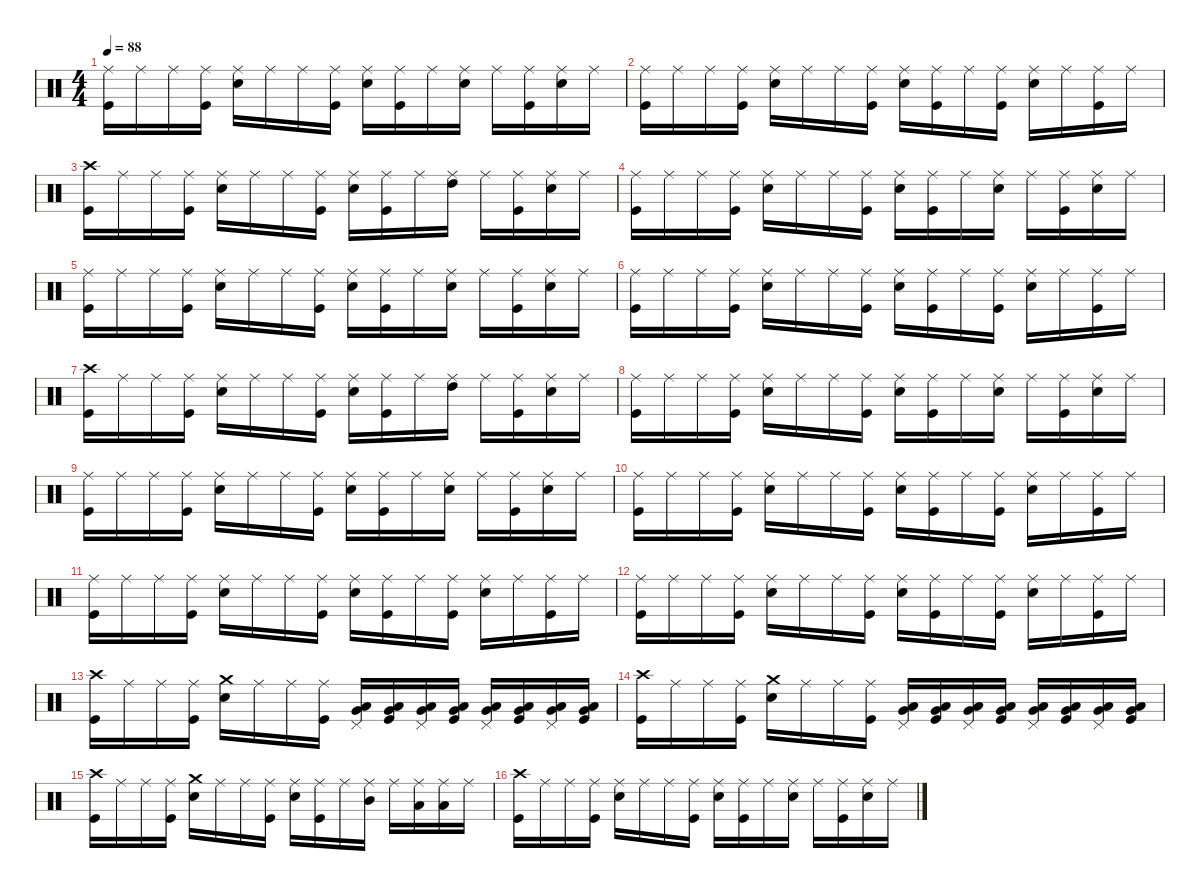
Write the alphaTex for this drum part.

\defaultSystemsLayout 4
\hideDynamics
\bracketExtendMode nobrackets
\singleTrackTrackNamePolicy hidden
\multiTrackTrackNamePolicy hidden
\firstSystemTrackNameMode fullname
\firstSystemTrackNameOrientation horizontal
\otherSystemsTrackNameOrientation horizontal
\track ("Drums" "drm.") {instrument percussion}
\staff {score}
\articulation defaults
\ts (4 4)
\tempo 88
\clef neutral
\ks c
("Ride (middle)" "Kick (hit)").16{dy f beam Down} "Ride (middle)".16{dy mp beam Down} "Ride (middle)".16{dy f beam Down} ("Ride (middle)" "Kick (hit)").16{dy mp beam Down} ("Ride (middle)" "Snare (hit) 2").16{dy f beam Down} "Ride (middle)".16{dy mp beam Down} "Ride (middle)".16{dy f beam Down} ("Ride (middle)" "Kick (hit)").16{dy mp beam Down} ("Ride (middle)" "Snare (hit) 2").16{dy f beam Down} ("Ride (middle)" "Kick (hit)").16{dy mp beam Down} "Ride (middle)".16{dy f beam Down} ("Ride (middle)" "Snare (hit) 2").16{dy mp beam Down} "Ride (middle)".16{dy f beam Down} ("Ride (middle)" "Kick (hit)").16{dy mp beam Down} ("Ride (middle)" "Snare (hit) 2").16{dy f beam Down} "Ride (middle)".16{dy mp beam Down} |
("Ride (middle)" "Kick (hit)").16{dy f beam Down} "Ride (middle)".16{dy mp beam Down} "Ride (middle)".16{dy f beam Down} ("Ride (middle)" "Kick (hit)").16{dy mp beam Down} ("Ride (middle)" "Snare (hit) 2").16{dy f beam Down} "Ride (middle)".16{dy mp beam Down} "Ride (middle)".16{dy f beam Down} ("Ride (middle)" "Kick (hit)").16{dy mp beam Down} ("Ride (middle)" "Snare (hit) 2").16{dy f beam Down} ("Ride (middle)" "Kick (hit)").16{dy mp beam Down} "Ride (middle)".16{dy f beam Down} ("Ride (middle)" "Kick (hit)").16{dy mp beam Down} ("Ride (middle)" "Snare (hit) 2").16{dy f beam Down} "Ride (middle)".16{dy mp beam Down} ("Ride (middle)" "Kick (hit)").16{dy f beam Down} "Ride (middle)".16{dy mp beam Down} |
("Crash high (hit)" "Kick (hit)").16{dy f beam Down} "Ride (middle)".16{dy mp beam Down} "Ride (middle)".16{dy f beam Down} ("Ride (middle)" "Kick (hit)").16{dy mp beam Down} ("Ride (middle)" "Snare (hit) 2").16{dy f beam Down} "Ride (middle)".16{dy mp beam Down} "Ride (middle)".16{dy f beam Down} ("Ride (middle)" "Kick (hit)").16{dy mp beam Down} ("Ride (middle)" "Snare (hit) 2").16{dy f beam Down} ("Ride (middle)" "Kick (hit)").16{dy mp beam Down} "Ride (middle)".16{dy f beam Down} ("Ride (middle)" "High Tom (hit)").16{dy mp beam Down} "Ride (middle)".16{dy f beam Down} ("Ride (middle)" "Kick (hit)").16{dy mp beam Down} ("Ride (middle)" "Snare (hit) 2").16{dy f beam Down} "Ride (middle)".16{dy mp beam Down} |
("Ride (middle)" "Kick (hit)").16{dy f beam Down} "Ride (middle)".16{dy mp beam Down} "Ride (middle)".16{dy f beam Down} ("Ride (middle)" "Kick (hit)").16{dy mp beam Down} ("Ride (middle)" "Snare (hit) 2").16{dy f beam Down} "Ride (middle)".16{dy mp beam Down} "Ride (middle)".16{dy f beam Down} ("Ride (middle)" "Kick (hit)").16{dy mp beam Down} ("Ride (middle)" "Snare (hit) 2").16{dy f beam Down} ("Ride (middle)" "Kick (hit)").16{dy mp beam Down} "Ride (middle)".16{dy f beam Down} ("Ride (middle)" "Snare (hit) 2").16{dy mp beam Down} "Ride (middle)".16{dy f beam Down} ("Ride (middle)" "Kick (hit)").16{dy mp beam Down} ("Ride (middle)" "Snare (hit) 2").16{dy f beam Down} "Ride (middle)".16{dy mp beam Down} |
("Ride (middle)" "Kick (hit)").16{dy f beam Down} "Ride (middle)".16{dy mp beam Down} "Ride (middle)".16{dy f beam Down} ("Ride (middle)" "Kick (hit)").16{dy mp beam Down} ("Ride (middle)" "Snare (hit) 2").16{dy f beam Down} "Ride (middle)".16{dy mp beam Down} "Ride (middle)".16{dy f beam Down} ("Ride (middle)" "Kick (hit)").16{dy mp beam Down} ("Ride (middle)" "Snare (hit) 2").16{dy f beam Down} ("Ride (middle)" "Kick (hit)").16{dy mp beam Down} "Ride (middle)".16{dy f beam Down} ("Ride (middle)" "Snare (hit) 2").16{dy mp beam Down} "Ride (middle)".16{dy f beam Down} ("Ride (middle)" "Kick (hit)").16{dy mp beam Down} ("Ride (middle)" "Snare (hit) 2").16{dy f beam Down} "Ride (middle)".16{dy mp beam Down} |
("Ride (middle)" "Kick (hit)").16{dy f beam Down} "Ride (middle)".16{dy mp beam Down} "Ride (middle)".16{dy f beam Down} ("Ride (middle)" "Kick (hit)").16{dy mp beam Down} ("Ride (middle)" "Snare (hit) 2").16{dy f beam Down} "Ride (middle)".16{dy mp beam Down} "Ride (middle)".16{dy f beam Down} ("Ride (middle)" "Kick (hit)").16{dy mp beam Down} ("Ride (middle)" "Snare (hit) 2").16{dy f beam Down} ("Ride (middle)" "Kick (hit)").16{dy mp beam Down} "Ride (middle)".16{dy f beam Down} ("Ride (middle)" "Kick (hit)").16{dy mp beam Down} ("Ride (middle)" "Snare (hit) 2").16{dy f beam Down} "Ride (middle)".16{dy mp beam Down} ("Ride (middle)" "Kick (hit)").16{dy f beam Down} "Ride (middle)".16{dy mp beam Down} |
("Crash high (hit)" "Kick (hit)").16{dy f beam Down} "Ride (middle)".16{dy mp beam Down} "Ride (middle)".16{dy f beam Down} ("Ride (middle)" "Kick (hit)").16{dy mp beam Down} ("Ride (middle)" "Snare (hit) 2").16{dy f beam Down} "Ride (middle)".16{dy mp beam Down} "Ride (middle)".16{dy f beam Down} ("Ride (middle)" "Kick (hit)").16{dy mp beam Down} ("Ride (middle)" "Snare (hit) 2").16{dy f beam Down} ("Ride (middle)" "Kick (hit)").16{dy mp beam Down} "Ride (middle)".16{dy f beam Down} ("Ride (middle)" "High Tom (hit)").16{dy mp beam Down} "Ride (middle)".16{dy f beam Down} ("Ride (middle)" "Kick (hit)").16{dy mp beam Down} ("Ride (middle)" "Snare (hit) 2").16{dy f beam Down} "Ride (middle)".16{dy mp beam Down} |
("Ride (middle)" "Kick (hit)").16{dy f beam Down} "Ride (middle)".16{dy mp beam Down} "Ride (middle)".16{dy f beam Down} ("Ride (middle)" "Kick (hit)").16{dy mp beam Down} ("Ride (middle)" "Snare (hit) 2").16{dy f beam Down} "Ride (middle)".16{dy mp beam Down} "Ride (middle)".16{dy f beam Down} ("Ride (middle)" "Kick (hit)").16{dy mp beam Down} ("Ride (middle)" "Snare (hit) 2").16{dy f beam Down} ("Ride (middle)" "Kick (hit)").16{dy mp beam Down} "Ride (middle)".16{dy f beam Down} ("Ride (middle)" "Snare (hit) 2").16{dy mp beam Down} "Ride (middle)".16{dy f beam Down} ("Ride (middle)" "Kick (hit)").16{dy mp beam Down} ("Ride (middle)" "Snare (hit) 2").16{dy f beam Down} "Ride (middle)".16{dy mp beam Down} |
("Ride (middle)" "Kick (hit)").16{dy f beam Down} "Ride (middle)".16{dy mp beam Down} "Ride (middle)".16{dy f beam Down} ("Ride (middle)" "Kick (hit)").16{dy mp beam Down} ("Ride (middle)" "Snare (hit) 2").16{dy f beam Down} "Ride (middle)".16{dy mp beam Down} "Ride (middle)".16{dy f beam Down} ("Ride (middle)" "Kick (hit)").16{dy mp beam Down} ("Ride (middle)" "Snare (hit) 2").16{dy f beam Down} ("Ride (middle)" "Kick (hit)").16{dy mp beam Down} "Ride (middle)".16{dy f beam Down} ("Ride (middle)" "Snare (hit) 2").16{dy mp beam Down} "Ride (middle)".16{dy f beam Down} ("Ride (middle)" "Kick (hit)").16{dy mp beam Down} ("Ride (middle)" "Snare (hit) 2").16{dy f beam Down} "Ride (middle)".16{dy mp beam Down} |
("Ride (middle)" "Kick (hit)").16{dy f beam Down} "Ride (middle)".16{dy mp beam Down} "Ride (middle)".16{dy f beam Down} ("Ride (middle)" "Kick (hit)").16{dy mp beam Down} ("Ride (middle)" "Snare (hit) 2").16{dy f beam Down} "Ride (middle)".16{dy mp beam Down} "Ride (middle)".16{dy f beam Down} ("Ride (middle)" "Kick (hit)").16{dy mp beam Down} ("Ride (middle)" "Snare (hit) 2").16{dy f beam Down} ("Ride (middle)" "Kick (hit)").16{dy mp beam Down} "Ride (middle)".16{dy f beam Down} ("Ride (middle)" "Kick (hit)").16{dy mp beam Down} ("Ride (middle)" "Snare (hit) 2").16{dy f beam Down} "Ride (middle)".16{dy mp beam Down} ("Ride (middle)" "Kick (hit)").16{dy f beam Down} "Ride (middle)".16{dy mp beam Down} |
("Ride (middle)" "Kick (hit)").16{dy f beam Down} "Ride (middle)".16{dy mp beam Down} "Ride (middle)".16{dy f beam Down} ("Ride (middle)" "Kick (hit)").16{dy mp beam Down} ("Ride (middle)" "Snare (hit) 2").16{dy f beam Down} "Ride (middle)".16{dy mp beam Down} "Ride (middle)".16{dy f beam Down} ("Ride (middle)" "Kick (hit)").16{dy mp beam Down} ("Ride (middle)" "Snare (hit) 2").16{dy f beam Down} ("Ride (middle)" "Kick (hit)").16{dy mp beam Down} "Ride (middle)".16{dy f beam Down} ("Ride (middle)" "Kick (hit)").16{dy mp beam Down} ("Ride (middle)" "Snare (hit) 2").16{dy f beam Down} "Ride (middle)".16{dy mp beam Down} ("Ride (middle)" "Kick (hit)").16{dy f beam Down} "Ride (middle)".16{dy mp beam Down} |
("Ride (middle)" "Kick (hit)").16{dy f beam Down} "Ride (middle)".16{dy mp beam Down} "Ride (middle)".16{dy f beam Down} ("Ride (middle)" "Kick (hit)").16{dy mp beam Down} ("Ride (middle)" "Snare (hit) 2").16{dy f beam Down} "Ride (middle)".16{dy mp beam Down} "Ride (middle)".16{dy f beam Down} ("Ride (middle)" "Kick (hit)").16{dy mp beam Down} ("Ride (middle)" "Snare (hit) 2").16{dy f beam Down} ("Ride (middle)" "Kick (hit)").16{dy mp beam Down} "Ride (middle)".16{dy f beam Down} ("Ride (middle)" "Kick (hit)").16{dy mp beam Down} ("Ride (middle)" "Snare (hit) 2").16{dy f beam Down} "Ride (middle)".16{dy mp beam Down} ("Ride (middle)" "Kick (hit)").16{dy f beam Down} "Ride (middle)".16{dy mp beam Down} |
("Crash high (hit)" "Kick (hit)").16{dy f beam Down} "Ride (middle)".16{dy mp beam Down} "Ride (middle)".16{dy f beam Down} ("Ride (middle)" "Kick (hit)").16{dy mp beam Down} ("Crash medium (hit)" "Snare (hit) 2").16{dy f beam Down} "Ride (middle)".16{dy mp beam Down} "Ride (middle)".16{dy f beam Down} ("Ride (middle)" "Kick (hit)").16{dy mp beam Down} ("Pedal Hi-Hat (hit)" "Very Low Tom (hit)" "Low Tom (hit)").16{dy p beam Up} ("Very Low Tom (hit)" "Low Tom (hit)" "Kick (hit)").16{dy mp beam Up} ("Pedal Hi-Hat (hit)" "Very Low Tom (hit)" "Low Tom (hit)").16{dy p beam Up} ("Very Low Tom (hit)" "Low Tom (hit)" "Kick (hit)").16{dy mp beam Up} ("Pedal Hi-Hat (hit)" "Very Low Tom (hit)" "Low Tom (hit)").16{dy p beam Up} ("Very Low Tom (hit)" "Low Tom (hit)" "Kick (hit)").16{beam Up} ("Pedal Hi-Hat (hit)" "Very Low Tom (hit)" "Low Tom (hit)").16{beam Up} ("Very Low Tom (hit)" "Low Tom (hit)" "Kick (hit)").16{dy mp beam Up} |
("Crash high (hit)" "Kick (hit)").16{dy f beam Down} "Ride (middle)".16{dy mp beam Down} "Ride (middle)".16{dy f beam Down} ("Ride (middle)" "Kick (hit)").16{dy mp beam Down} ("Crash medium (hit)" "Snare (hit) 2").16{dy f beam Down} "Ride (middle)".16{dy mp beam Down} "Ride (middle)".16{dy f beam Down} ("Ride (middle)" "Kick (hit)").16{dy mp beam Down} ("Pedal Hi-Hat (hit)" "Very Low Tom (hit)" "Low Tom (hit)").16{dy p beam Up} ("Very Low Tom (hit)" "Low Tom (hit)" "Kick (hit)").16{dy mp beam Up} ("Pedal Hi-Hat (hit)" "Very Low Tom (hit)" "Low Tom (hit)").16{dy p beam Up} ("Very Low Tom (hit)" "Low Tom (hit)" "Kick (hit)").16{dy mp beam Up} ("Pedal Hi-Hat (hit)" "Very Low Tom (hit)" "Low Tom (hit)").16{dy p beam Up} ("Very Low Tom (hit)" "Low Tom (hit)" "Kick (hit)").16{beam Up} ("Pedal Hi-Hat (hit)" "Very Low Tom (hit)" "Low Tom (hit)").16{beam Up} ("Very Low Tom (hit)" "Low Tom (hit)" "Kick (hit)").16{dy mp beam Up} |
("Crash high (hit)" "Kick (hit)").16{dy f beam Down} "Ride (middle)".16{dy mp beam Down} "Ride (middle)".16{dy f beam Down} ("Ride (middle)" "Kick (hit)").16{dy mp beam Down} ("Crash medium (hit)" "Snare (hit) 2").16{dy f beam Down} "Ride (middle)".16{dy mp beam Down} "Ride (middle)".16{dy f beam Down} ("Ride (middle)" "Kick (hit)").16{dy mp beam Down} ("Ride (middle)" "Snare (hit) 2").16{dy f beam Down} ("Ride (middle)" "Kick (hit)").16{dy mp beam Down} "Ride (middle)".16{dy f beam Down} ("Ride (middle)" "Mid Tom (hit)").16{dy mp beam Down} "Ride (middle)".16{dy f beam Down} ("Ride (middle)" "Low Tom (hit)").16{dy mp beam Down} ("Ride (middle)" "Low Tom (hit)").16{dy f beam Down} "Ride (middle)".16{dy mp beam Down} |
("Crash high (hit)" "Kick (hit)").16{dy f beam Down} "Ride (middle)".16{dy mp beam Down} "Ride (middle)".16{dy f beam Down} ("Ride (middle)" "Kick (hit)").16{dy mp beam Down} ("Ride (middle)" "Snare (hit) 2").16{dy f beam Down} "Ride (middle)".16{dy mp beam Down} "Ride (middle)".16{dy f beam Down} ("Ride (middle)" "Kick (hit)").16{dy mp beam Down} ("Ride (middle)" "Snare (hit) 2").16{dy f beam Down} ("Ride (middle)" "Kick (hit)").16{dy mp beam Down} "Ride (middle)".16{dy f beam Down} ("Ride (middle)" "Snare (hit) 2").16{dy mp beam Down} "Ride (middle)".16{dy f beam Down} ("Ride (middle)" "Kick (hit)").16{dy mp beam Down} ("Ride (middle)" "Snare (hit) 2").16{dy f beam Down} "Ride (middle)".16{dy mp beam Down}
